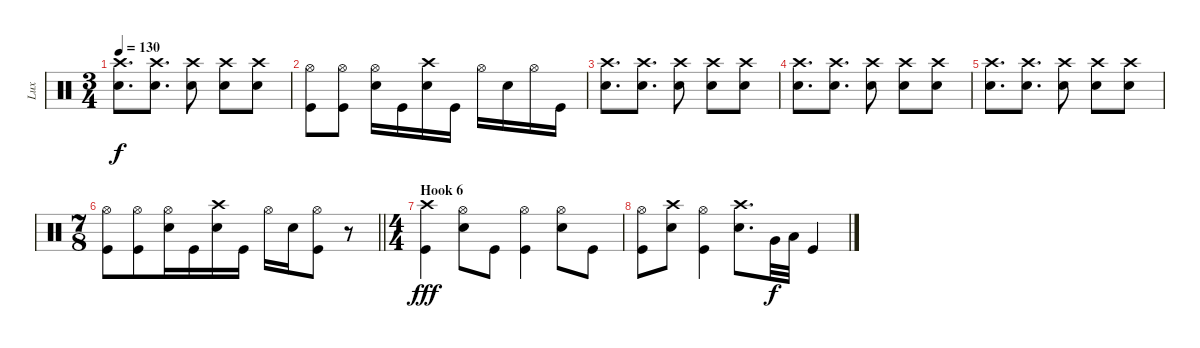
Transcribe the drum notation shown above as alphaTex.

\track ("Lux" "Lux") {instrument percussion}
\staff {score}
\articulation defaults
\ts (3 4)
\tempo 130
\clef neutral
\ks c
("Crash high (hit)" "Snare (hit) 2").8{d dy f} ("Crash high (hit)" "Snare (hit) 2").8{d} ("Crash high (hit)" "Snare (hit) 2").8 ("Crash high (hit)" "Snare (hit) 2").8 ("Crash high (hit)" "Snare (hit) 2").8 |
("Hi-Hat (open)" "Kick (hit)").8 ("Hi-Hat (open)" "Kick (hit)").8 ("Hi-Hat (open)" "Snare (hit) 2").16 "Kick (hit)".16 ("Crash high (hit)" "Snare (hit) 2").16 "Kick (hit)".16 "Hi-Hat (open)".16 "Snare (hit) 2".16 "Hi-Hat (open)".16 "Kick (hit)".16 |
("Crash high (hit)" "Snare (hit) 2").8{d} ("Crash high (hit)" "Snare (hit) 2").8{d} ("Crash high (hit)" "Snare (hit) 2").8 ("Crash high (hit)" "Snare (hit) 2").8 ("Crash high (hit)" "Snare (hit) 2").8 |
("Crash high (hit)" "Snare (hit) 2").8{d} ("Crash high (hit)" "Snare (hit) 2").8{d} ("Crash high (hit)" "Snare (hit) 2").8 ("Crash high (hit)" "Snare (hit) 2").8 ("Crash high (hit)" "Snare (hit) 2").8 |
("Crash high (hit)" "Snare (hit) 2").8{d} ("Crash high (hit)" "Snare (hit) 2").8{d} ("Crash high (hit)" "Snare (hit) 2").8 ("Crash high (hit)" "Snare (hit) 2").8 ("Crash high (hit)" "Snare (hit) 2").8 |
\ts (7 8)
\barLineRight lightlight
("Hi-Hat (open)" "Kick (hit)").8 ("Hi-Hat (open)" "Kick (hit)").8 ("Hi-Hat (open)" "Snare (hit) 2").16 "Kick (hit)".16 ("Crash high (hit)" "Snare (hit) 2").16 "Kick (hit)".16 "Hi-Hat (open)".16 "Snare (hit) 2".16 ("Hi-Hat (open)" "Kick (hit)").8 r.8 |
\ts (4 4)
\section ("" "Hook 6")
("Crash high (hit)" "Kick (hit)").4{dy fff} ("Hi-Hat (open)" "Snare (hit) 2").8 "Kick (hit)".8 ("Hi-Hat (open)" "Kick (hit)").4 ("Hi-Hat (open)" "Snare (hit) 2").8 "Kick (hit)".8 |
("Hi-Hat (open)" "Kick (hit)").8 ("Crash high (hit)" "Snare (hit) 2").8 ("Hi-Hat (open)" "Kick (hit)").4 ("Crash high (hit)" "Snare (hit) 2").8{d} "Very Low Tom (hit)".32{dy f} "Low Tom (hit)".32 "Kick (hit)".4
